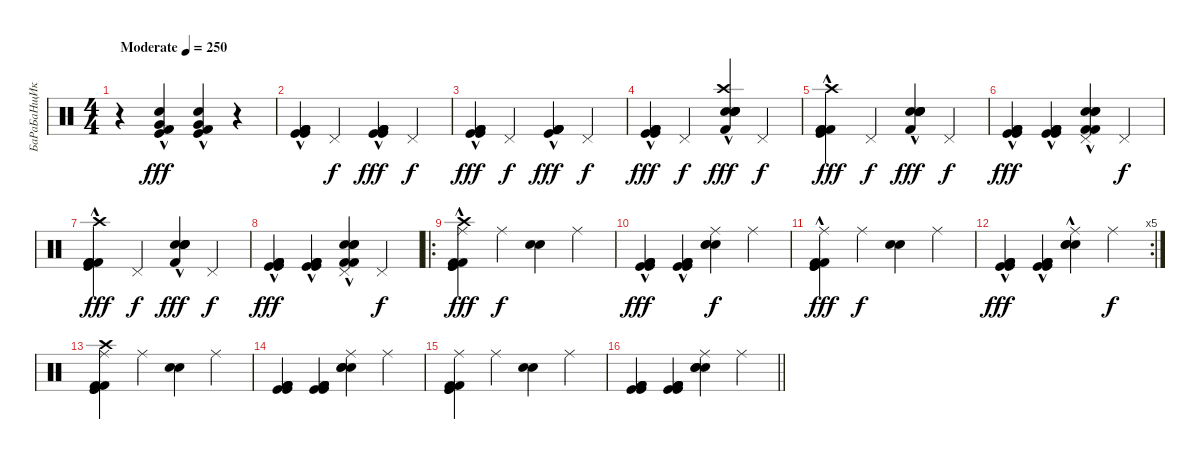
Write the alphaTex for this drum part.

\track ("БаРаБаНщИк" "БаРаБаНщИк") {instrument percussion}
\staff {score}
\articulation defaults
\ts (4 4)
\tempo (250 "Moderate")
\clef neutral
\ks c
r.4{dy fff} ("Kick (hit) 2"{hac} "Hand Clap (hit)"{hac} "Very Low Tom (hit)"{hac} "Kick (hit)"{hac}).4 ("Kick (hit) 2"{hac} "Hand Clap (hit)"{hac} "Very Low Tom (hit)"{hac} "Kick (hit)"{hac}).4 r.4 |
("Kick (hit) 2"{hac} "Kick (hit) 2"{hac} "Kick (hit) 2"{hac} "Kick (hit)"{hac} "Kick (hit)"{hac}).4 "Pedal Hi-Hat (hit)".4{dy f} ("Kick (hit)"{hac} "Kick (hit) 2"{hac} "Kick (hit) 2"{hac} "Kick (hit) 2"{hac} "Kick (hit)"{hac}).4{dy fff} "Pedal Hi-Hat (hit)".4{dy f} |
("Kick (hit) 2"{hac} "Kick (hit) 2"{hac} "Kick (hit) 2"{hac} "Kick (hit)"{hac} "Kick (hit)"{hac}).4{dy fff} "Pedal Hi-Hat (hit)".4{dy f} ("Kick (hit) 2"{hac} "Kick (hit) 2"{hac} "Kick (hit) 2"{hac} "Kick (hit) 2"{hac} "Kick (hit)"{hac}).4{dy fff} "Pedal Hi-Hat (hit)".4{dy f} |
("Kick (hit) 2"{hac} "Kick (hit) 2"{hac} "Kick (hit) 2"{hac} "Kick (hit)"{hac} "Kick (hit)"{hac}).4{dy fff} "Pedal Hi-Hat (hit)".4{dy f} ("Crash high (hit)" "Kick (hit) 2"{hac} "Electric Snare (hit)" "Snare (hit) 2" "Snare (hit) 2" "Snare (hit) 2").4{dy fff} "Pedal Hi-Hat (hit)".4{dy f} |
("Crash high (hit)" "Kick (hit)"{hac} "Kick (hit) 2"{hac} "Kick (hit) 2"{hac} "Kick (hit) 2"{hac}).4{dy fff} "Pedal Hi-Hat (hit)".4{dy f} ("Kick (hit) 2"{hac} "Electric Snare (hit)" "Snare (hit) 2" "Snare (hit) 2" "Snare (hit) 2").4{dy fff} "Pedal Hi-Hat (hit)".4{dy f} |
("Kick (hit) 2"{hac} "Kick (hit)"{hac} "Kick (hit) 2"{hac} "Kick (hit) 2"{hac} "Kick (hit)"{hac}).4{dy fff} ("Kick (hit)"{hac} "Kick (hit)"{hac} "Kick (hit) 2"{hac} "Kick (hit) 2"{hac} "Kick (hit) 2"{hac}).4 ("Pedal Hi-Hat (hit)" "Snare (hit) 2" "Kick (hit) 2"{hac} "Snare (hit) 2" "Kick (hit) 2"{hac} "Snare (hit) 2").4 "Pedal Hi-Hat (hit)".4{dy f} |
("Crash high (hit)" "Kick (hit)"{hac} "Kick (hit) 2"{hac} "Kick (hit) 2"{hac} "Kick (hit) 2"{hac}).4{dy fff} "Pedal Hi-Hat (hit)".4{dy f} ("Kick (hit) 2"{hac} "Electric Snare (hit)" "Snare (hit) 2" "Snare (hit) 2" "Snare (hit) 2").4{dy fff} "Pedal Hi-Hat (hit)".4{dy f} |
("Kick (hit) 2"{hac} "Kick (hit)"{hac} "Kick (hit) 2"{hac} "Kick (hit) 2"{hac} "Kick (hit)"{hac}).4{dy fff} ("Kick (hit)"{hac} "Kick (hit)"{hac} "Kick (hit) 2"{hac} "Kick (hit) 2"{hac} "Kick (hit) 2"{hac}).4 ("Pedal Hi-Hat (hit)" "Snare (hit) 2" "Kick (hit) 2"{hac} "Snare (hit) 2" "Kick (hit) 2"{hac} "Snare (hit) 2").4 "Pedal Hi-Hat (hit)".4{dy f} |
\ro
("Ride (middle)"{hac} "Kick (hit)"{hac} "Kick (hit)"{hac} "Kick (hit) 2"{hac} "Kick (hit) 2"{hac} "Crash high (hit)"{hac}).4{dy fff} "Ride (middle)".4{dy f} ("Electric Snare (hit)" "Snare (hit) 2").4 "Ride (middle)".4 |
("Kick (hit) 2"{hac} "Kick (hit)"{hac} "Kick (hit)"{hac} "Kick (hit) 2"{hac} "Kick (hit) 2"{hac}).4{dy fff} ("Kick (hit) 2"{hac} "Kick (hit) 2"{hac} "Kick (hit)"{hac} "Kick (hit)"{hac} "Kick (hit) 2"{hac}).4 ("Ride (middle)" "Snare (hit) 2" "Snare (hit) 2" "Electric Snare (hit)").4{dy f} "Ride (middle)".4 |
("Ride (middle)" "Kick (hit)"{hac} "Kick (hit)"{hac} "Kick (hit) 2"{hac} "Kick (hit) 2"{hac}).4{dy fff} "Ride (middle)".4{dy f} ("Electric Snare (hit)" "Snare (hit) 2").4 "Ride (middle)".4 |
\rc 5
("Kick (hit) 2"{hac} "Kick (hit)"{hac} "Kick (hit)"{hac} "Kick (hit) 2"{hac} "Kick (hit) 2"{hac}).4{dy fff} ("Kick (hit) 2"{hac} "Kick (hit) 2"{hac} "Kick (hit)"{hac} "Kick (hit)"{hac} "Kick (hit) 2"{hac}).4 ("Ride (middle)" "Snare (hit) 2" "Snare (hit) 2"{hac} "Electric Snare (hit)").4 "Ride (middle)".4{dy f} |
("Ride (middle)" "Kick (hit)" "Kick (hit)" "Kick (hit) 2" "Kick (hit) 2" "Crash high (hit)").4 "Ride (middle)".4 ("Electric Snare (hit)" "Snare (hit) 2").4 "Ride (middle)".4 |
("Kick (hit) 2" "Kick (hit)" "Kick (hit)" "Kick (hit) 2" "Kick (hit) 2").4 ("Kick (hit) 2" "Kick (hit) 2" "Kick (hit)" "Kick (hit)" "Kick (hit) 2").4 ("Ride (middle)" "Snare (hit) 2" "Snare (hit) 2" "Electric Snare (hit)").4 "Ride (middle)".4 |
("Ride (middle)" "Kick (hit)" "Kick (hit)" "Kick (hit) 2" "Kick (hit) 2").4 "Ride (middle)".4 ("Electric Snare (hit)" "Snare (hit) 2").4 "Ride (middle)".4 |
\barLineRight lightlight
("Kick (hit) 2" "Kick (hit)" "Kick (hit)" "Kick (hit) 2" "Kick (hit) 2").4 ("Kick (hit) 2" "Kick (hit) 2" "Kick (hit)" "Kick (hit)" "Kick (hit) 2").4 ("Ride (middle)" "Snare (hit) 2" "Snare (hit) 2" "Electric Snare (hit)").4 "Ride (middle)".4
